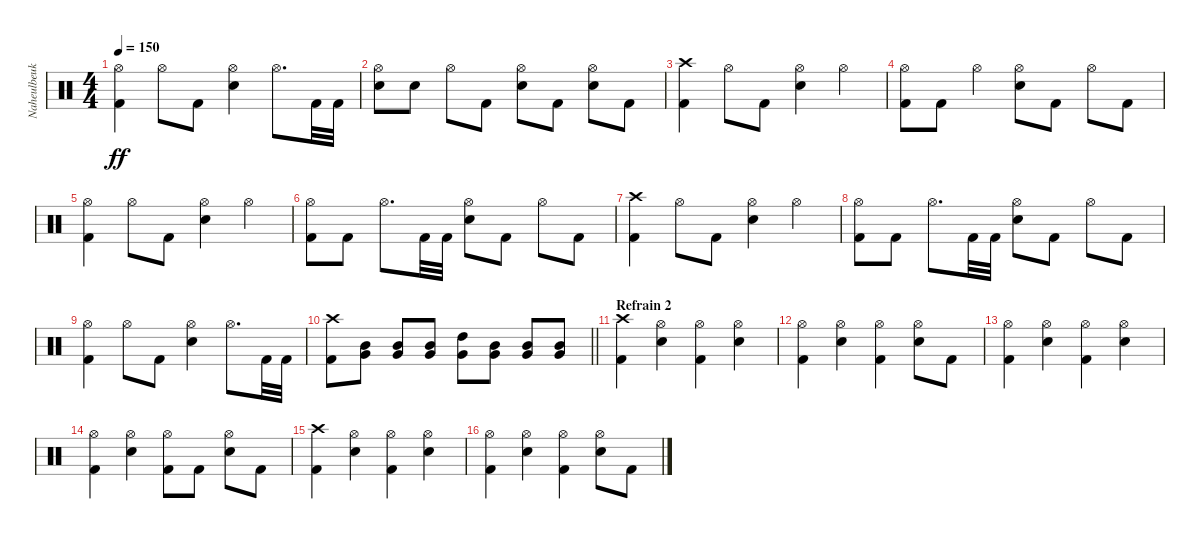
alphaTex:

\track ("Naheulbeuk" "Naheulbeuk") {instrument percussion}
\staff {score}
\articulation defaults
\ts (4 4)
\tempo 150
\clef neutral
\ks c
("Hi-Hat (open)" "Kick (hit) 2").4{dy ff} "Hi-Hat (open)".8 "Kick (hit) 2".8 ("Hi-Hat (open)" "Snare (hit) 2").4 "Hi-Hat (open)".8{d} "Kick (hit) 2".32 "Kick (hit) 2".32 |
("Hi-Hat (open)" "Snare (hit) 2").8 "Snare (hit) 2".8 "Hi-Hat (open)".8 "Kick (hit) 2".8 ("Hi-Hat (open)" "Snare (hit) 2").8 "Kick (hit) 2".8 ("Hi-Hat (open)" "Snare (hit) 2").8 "Kick (hit) 2".8 |
("Crash high (hit)" "Kick (hit) 2").4 "Hi-Hat (open)".8 "Kick (hit) 2".8 ("Hi-Hat (open)" "Snare (hit) 2").4 "Hi-Hat (open)".4 |
("Hi-Hat (open)" "Kick (hit) 2").8 "Kick (hit) 2".8 "Hi-Hat (open)".4 ("Hi-Hat (open)" "Snare (hit) 2").8 "Kick (hit) 2".8 "Hi-Hat (open)".8 "Kick (hit) 2".8 |
("Hi-Hat (open)" "Kick (hit) 2").4 "Hi-Hat (open)".8 "Kick (hit) 2".8 ("Hi-Hat (open)" "Snare (hit) 2").4 "Hi-Hat (open)".4 |
("Hi-Hat (open)" "Kick (hit) 2").8 "Kick (hit) 2".8 "Hi-Hat (open)".8{d} "Kick (hit) 2".32 "Kick (hit) 2".32 ("Hi-Hat (open)" "Snare (hit) 2").8 "Kick (hit) 2".8 "Hi-Hat (open)".8 "Kick (hit) 2".8 |
("Crash high (hit)" "Kick (hit) 2").4 "Hi-Hat (open)".8 "Kick (hit) 2".8 ("Hi-Hat (open)" "Snare (hit) 2").4 "Hi-Hat (open)".4 |
("Hi-Hat (open)" "Kick (hit) 2").8 "Kick (hit) 2".8 "Hi-Hat (open)".8{d} "Kick (hit) 2".32 "Kick (hit) 2".32 ("Hi-Hat (open)" "Snare (hit) 2").8 "Kick (hit) 2".8 "Hi-Hat (open)".8 "Kick (hit) 2".8 |
("Hi-Hat (open)" "Kick (hit) 2").4 "Hi-Hat (open)".8 "Kick (hit) 2".8 ("Hi-Hat (open)" "Snare (hit) 2").4 "Hi-Hat (open)".8{d} "Kick (hit) 2".32 "Kick (hit) 2".32 |
\barLineRight lightlight
("Crash high (hit)" "Kick (hit) 2").8 ("Mid Tom (hit)" "Very Low Tom (hit)").8 ("Mid Tom (hit)" "Very Low Tom (hit)").8 ("Mid Tom (hit)" "Very Low Tom (hit)").8 ("High Tom (hit)" "Very Low Tom (hit)").8 ("Mid Tom (hit)" "Very Low Tom (hit)").8 ("Mid Tom (hit)" "Very Low Tom (hit)").8 ("Mid Tom (hit)" "Very Low Tom (hit)").8 |
\section ("" "Refrain 2")
("Crash high (hit)" "Kick (hit) 2").4 ("Hi-Hat (open)" "Snare (hit) 2").4 ("Hi-Hat (open)" "Kick (hit) 2").4 ("Hi-Hat (open)" "Snare (hit) 2").4 |
("Hi-Hat (open)" "Kick (hit) 2").4 ("Hi-Hat (open)" "Snare (hit) 2").4 ("Hi-Hat (open)" "Kick (hit) 2").4 ("Hi-Hat (open)" "Snare (hit) 2").8 "Kick (hit) 2".8 |
("Hi-Hat (open)" "Kick (hit) 2").4 ("Hi-Hat (open)" "Snare (hit) 2").4 ("Hi-Hat (open)" "Kick (hit) 2").4 ("Hi-Hat (open)" "Snare (hit) 2").4 |
("Hi-Hat (open)" "Kick (hit) 2").4 ("Hi-Hat (open)" "Snare (hit) 2").4 ("Hi-Hat (open)" "Kick (hit) 2").8 "Kick (hit) 2".8 ("Hi-Hat (open)" "Snare (hit) 2").8 "Kick (hit) 2".8 |
("Crash high (hit)" "Kick (hit) 2").4 ("Hi-Hat (open)" "Snare (hit) 2").4 ("Hi-Hat (open)" "Kick (hit) 2").4 ("Hi-Hat (open)" "Snare (hit) 2").4 |
("Hi-Hat (open)" "Kick (hit) 2").4 ("Hi-Hat (open)" "Snare (hit) 2").4 ("Hi-Hat (open)" "Kick (hit) 2").4 ("Hi-Hat (open)" "Snare (hit) 2").8 "Kick (hit) 2".8
